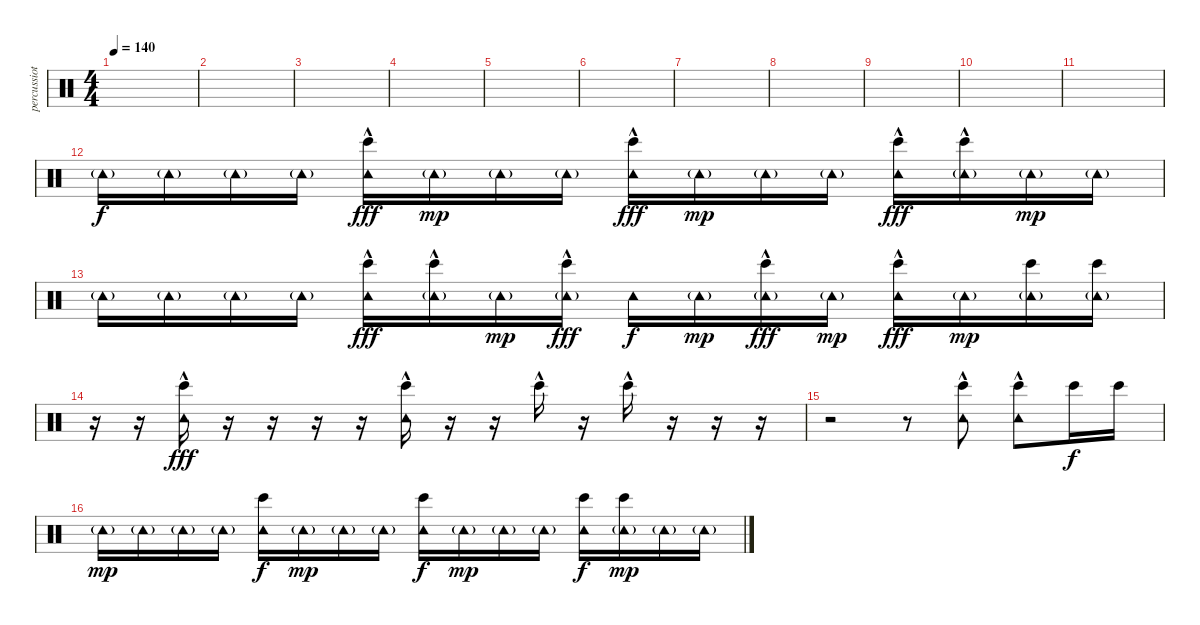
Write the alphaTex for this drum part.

\track ("percussiot" "percussiot") {instrument percussion}
\staff {score}
\articulation defaults
\ts (4 4)
\tempo 140
\clef neutral
\ks c
|
|
|
|
|
|
|
|
|
|
|
"Tambourine (hit)"{g}.16 "Tambourine (hit)"{g}.16 "Tambourine (hit)"{g}.16 "Tambourine (hit)"{g}.16 ("Tambourine (hit)" "Bongo High (hit)"{hac}).16{dy fff} "Tambourine (hit)"{g}.16{dy mp} "Tambourine (hit)"{g}.16 "Tambourine (hit)"{g}.16 ("Tambourine (hit)" "Bongo High (hit)"{hac}).16{dy fff} "Tambourine (hit)"{g}.16{dy mp} "Tambourine (hit)"{g}.16 "Tambourine (hit)"{g}.16 ("Tambourine (hit)" "Bongo High (hit)"{hac}).16{dy fff} ("Tambourine (hit)"{g} "Bongo High (hit)"{hac}).16 "Tambourine (hit)"{g}.16{dy mp} "Tambourine (hit)"{g}.16 |
"Tambourine (hit)"{g}.16 "Tambourine (hit)"{g}.16 "Tambourine (hit)"{g}.16 "Tambourine (hit)"{g}.16 ("Tambourine (hit)" "Bongo High (hit)"{hac}).16{dy fff} ("Tambourine (hit)"{g} "Bongo High (hit)"{hac}).16 "Tambourine (hit)"{g}.16{dy mp} ("Tambourine (hit)"{g} "Bongo High (hit)"{hac}).16{dy fff} "Tambourine (hit)".16{dy f} "Tambourine (hit)"{g}.16{dy mp} ("Tambourine (hit)"{g} "Bongo High (hit)"{hac}).16{dy fff} "Tambourine (hit)"{g}.16{dy mp} ("Tambourine (hit)" "Bongo High (hit)"{hac}).16{dy fff} "Tambourine (hit)"{g}.16{dy mp} ("Tambourine (hit)"{g} "Bongo High (hit)").16 ("Tambourine (hit)"{g} "Bongo High (hit)").16 |
r.16 r.16 ("Tambourine (hit)" "Bongo High (hit)"{hac}).16{dy fff} r.16 r.16 r.16 r.16 ("Tambourine (hit)" "Bongo High (hit)"{hac}).16 r.16 r.16 "Bongo High (hit)"{hac}.16 r.16 "Bongo High (hit)"{hac}.16 r.16 r.16 r.16 |
r.2 r.8 ("Tambourine (hit)" "Bongo High (hit)"{hac}).8 ("Tambourine (hit)" "Bongo High (hit)"{hac}).8 "Bongo High (hit)".16{dy f} "Bongo High (hit)".16 |
"Tambourine (hit)"{g}.16{dy mp} "Tambourine (hit)"{g}.16 "Tambourine (hit)"{g}.16 "Tambourine (hit)"{g}.16 ("Tambourine (hit)" "Bongo High (hit)").16{dy f} "Tambourine (hit)"{g}.16{dy mp} "Tambourine (hit)"{g}.16 "Tambourine (hit)"{g}.16 ("Tambourine (hit)" "Bongo High (hit)").16{dy f} "Tambourine (hit)"{g}.16{dy mp} "Tambourine (hit)"{g}.16 "Tambourine (hit)"{g}.16 ("Tambourine (hit)" "Bongo High (hit)").16{dy f} ("Tambourine (hit)"{g} "Bongo High (hit)").16{dy mp} "Tambourine (hit)"{g}.16 "Tambourine (hit)"{g}.16
